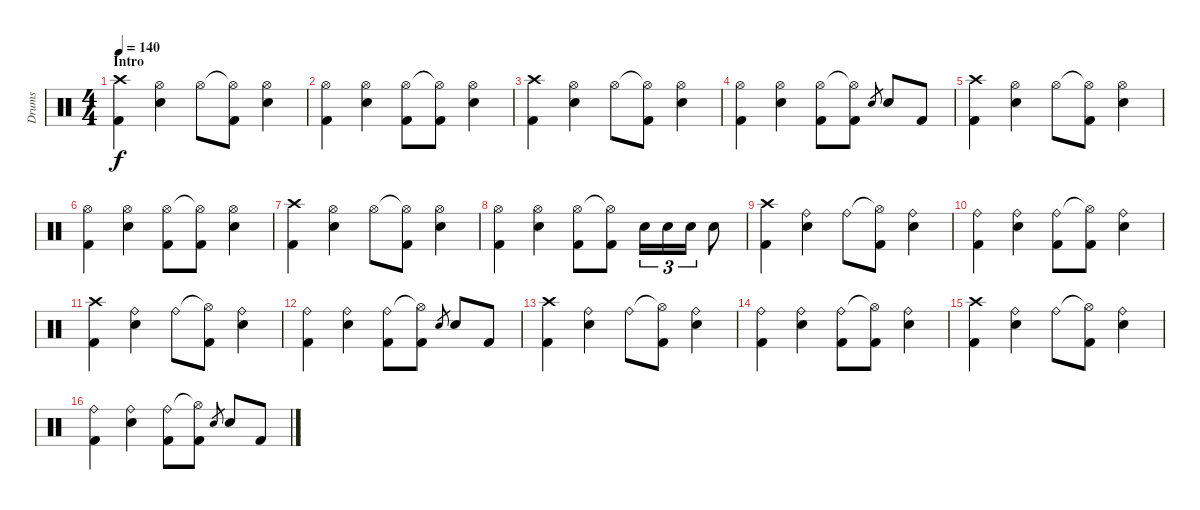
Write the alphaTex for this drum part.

\track ("Drums" "Drums") {instrument percussion}
\staff {score}
\articulation defaults
\ts (4 4)
\section ("" "Intro")
\tempo 140
\clef neutral
\ks c
("Crash high (hit)" "Kick (hit) 2").4{dy f} ("Hi-Hat (open)" "Electric Snare (hit)").4 "Hi-Hat (open)".8 ("Hi-Hat (open)"{t} "Kick (hit) 2").8 ("Hi-Hat (open)" "Electric Snare (hit)").4 |
("Hi-Hat (open)" "Kick (hit) 2").4 ("Hi-Hat (open)" "Electric Snare (hit)").4 ("Hi-Hat (open)" "Kick (hit) 2").8 ("Hi-Hat (open)"{t} "Kick (hit) 2").8 ("Hi-Hat (open)" "Electric Snare (hit)").4 |
("Crash high (hit)" "Kick (hit) 2").4 ("Hi-Hat (open)" "Electric Snare (hit)").4 "Hi-Hat (open)".8 ("Hi-Hat (open)"{t} "Kick (hit) 2").8 ("Hi-Hat (open)" "Electric Snare (hit)").4 |
("Hi-Hat (open)" "Kick (hit) 2").4 ("Hi-Hat (open)" "Electric Snare (hit)").4 ("Hi-Hat (open)" "Kick (hit) 2").8 ("Hi-Hat (open)"{t} "Kick (hit) 2").8 "Electric Snare (hit)".8{gr} "Electric Snare (hit)".8 "Kick (hit) 2".8 |
("Crash high (hit)" "Kick (hit) 2").4 ("Hi-Hat (open)" "Electric Snare (hit)").4 "Hi-Hat (open)".8 ("Hi-Hat (open)"{t} "Kick (hit) 2").8 ("Hi-Hat (open)" "Electric Snare (hit)").4 |
("Hi-Hat (open)" "Kick (hit) 2").4 ("Hi-Hat (open)" "Electric Snare (hit)").4 ("Hi-Hat (open)" "Kick (hit) 2").8 ("Hi-Hat (open)"{t} "Kick (hit) 2").8 ("Hi-Hat (open)" "Electric Snare (hit)").4 |
("Crash high (hit)" "Kick (hit) 2").4 ("Hi-Hat (open)" "Electric Snare (hit)").4 "Hi-Hat (open)".8 ("Hi-Hat (open)"{t} "Kick (hit) 2").8 ("Hi-Hat (open)" "Electric Snare (hit)").4 |
("Hi-Hat (open)" "Kick (hit) 2").4 ("Hi-Hat (open)" "Electric Snare (hit)").4 ("Hi-Hat (open)" "Kick (hit) 2").8 ("Hi-Hat (open)"{t} "Kick (hit) 2").8 "Electric Snare (hit)".16{tu (3 2)} "Electric Snare (hit)".16{tu (3 2)} "Electric Snare (hit)".16{tu (3 2)} "Electric Snare (hit)".8 |
("Crash high (hit)" "Kick (hit) 2").4 ("Ride (bell)" "Electric Snare (hit)").4 "Ride (bell)".8 ("Hi-Hat (open)"{t} "Kick (hit) 2").8 ("Ride (bell)" "Electric Snare (hit)").4 |
("Ride (bell)" "Kick (hit) 2").4 ("Ride (bell)" "Electric Snare (hit)").4 ("Ride (bell)" "Kick (hit) 2").8 ("Hi-Hat (open)"{t} "Kick (hit) 2").8 ("Ride (bell)" "Electric Snare (hit)").4 |
("Crash high (hit)" "Kick (hit) 2").4 ("Ride (bell)" "Electric Snare (hit)").4 "Ride (bell)".8 ("Hi-Hat (open)"{t} "Kick (hit) 2").8 ("Ride (bell)" "Electric Snare (hit)").4 |
("Ride (bell)" "Kick (hit) 2").4 ("Ride (bell)" "Electric Snare (hit)").4 ("Ride (bell)" "Kick (hit) 2").8 ("Hi-Hat (open)"{t} "Kick (hit) 2").8 "Electric Snare (hit)".8{gr} "Electric Snare (hit)".8 "Kick (hit) 2".8 |
("Crash high (hit)" "Kick (hit) 2").4 ("Ride (bell)" "Electric Snare (hit)").4 "Ride (bell)".8 ("Hi-Hat (open)"{t} "Kick (hit) 2").8 ("Ride (bell)" "Electric Snare (hit)").4 |
("Ride (bell)" "Kick (hit) 2").4 ("Ride (bell)" "Electric Snare (hit)").4 ("Ride (bell)" "Kick (hit) 2").8 ("Hi-Hat (open)"{t} "Kick (hit) 2").8 ("Ride (bell)" "Electric Snare (hit)").4 |
("Crash high (hit)" "Kick (hit) 2").4 ("Ride (bell)" "Electric Snare (hit)").4 "Ride (bell)".8 ("Hi-Hat (open)"{t} "Kick (hit) 2").8 ("Ride (bell)" "Electric Snare (hit)").4 |
("Ride (bell)" "Kick (hit) 2").4 ("Ride (bell)" "Electric Snare (hit)").4 ("Ride (bell)" "Kick (hit) 2").8 ("Hi-Hat (open)"{t} "Kick (hit) 2").8 "Electric Snare (hit)".8{gr} "Electric Snare (hit)".8 "Kick (hit) 2".8
